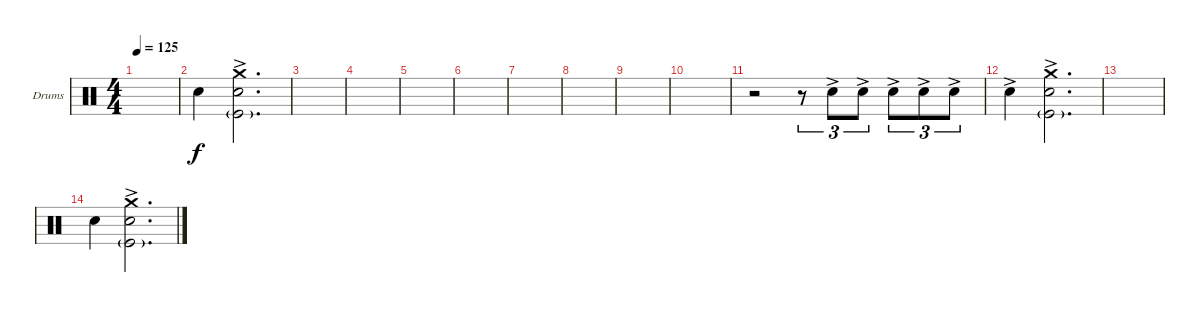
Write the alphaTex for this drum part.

\defaultSystemsLayout 4
\bracketExtendMode groupsimilarinstruments
\firstSystemTrackNameOrientation horizontal
\otherSystemsTrackNameOrientation horizontal
\track ("Drumkit" "Drums") {instrument percussion}
\staff {score}
\articulation defaults
\ts (4 4)
\tempo 125
\clef neutral
\scale
0.333333
\ks c
|
\scale
0.333333 "Snare (hit) 2".4 ("Snare (hit) 2" "Kick (hit)"{g} "Crash medium (hit)"{ac}).2{d} |
\scale
0.333333 |
\scale
0.333333 |
\scale
0.333333 |
\scale
0.333333 |
\scale
0.333333 |
\scale
0.333333 |
\scale
0.333333 |
\scale
0.333333 |
\scale
0.333333 r.2 r.8{tu (3 2)} "Snare (hit) 2"{ac}.8{tu (3 2)} "Snare (hit) 2"{ac}.8{tu (3 2)} "Snare (hit) 2"{ac}.8{tu (3 2)} "Snare (hit) 2"{ac}.8{tu (3 2)} "Snare (hit) 2"{ac}.8{tu (3 2)} |
\scale
0.333333 "Snare (hit) 2"{ac}.4 ("Snare (hit) 2" "Kick (hit)"{g} "Crash medium (hit)"{ac}).2{d} |
\scale
0.333333 |
\scale
0.333333 "Snare (hit) 2".4 ("Snare (hit) 2" "Kick (hit)"{g} "Crash medium (hit)"{ac}).2{d} |
\scale
0.333333 |
\scale
0.333333
